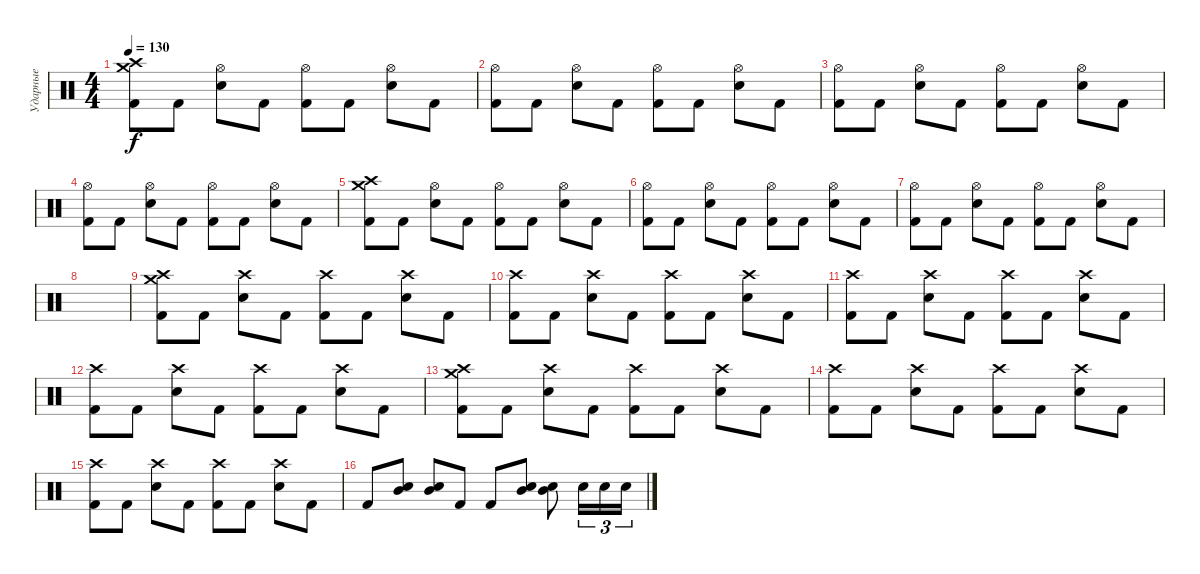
\track ("Ударные" "Ударные") {instrument percussion}
\staff {score}
\articulation defaults
\ts (4 4)
\tempo 130
\clef neutral
\ks c
("Kick (hit) 2" "Crash medium (hit)" "Crash high (hit)").8{dy f} "Kick (hit) 2".8 ("Electric Snare (hit)" "Hi-Hat (open)").8 "Kick (hit) 2".8 ("Kick (hit) 2" "Hi-Hat (open)").8 "Kick (hit) 2".8 ("Electric Snare (hit)" "Hi-Hat (open)").8 "Kick (hit) 2".8 |
("Kick (hit) 2" "Hi-Hat (open)").8 "Kick (hit) 2".8 ("Electric Snare (hit)" "Hi-Hat (open)").8 "Kick (hit) 2".8 ("Kick (hit) 2" "Hi-Hat (open)").8 "Kick (hit) 2".8 ("Electric Snare (hit)" "Hi-Hat (open)").8 "Kick (hit) 2".8 |
("Kick (hit) 2" "Hi-Hat (open)").8 "Kick (hit) 2".8 ("Electric Snare (hit)" "Hi-Hat (open)").8 "Kick (hit) 2".8 ("Kick (hit) 2" "Hi-Hat (open)").8 "Kick (hit) 2".8 ("Electric Snare (hit)" "Hi-Hat (open)").8 "Kick (hit) 2".8 |
("Kick (hit) 2" "Hi-Hat (open)").8 "Kick (hit) 2".8 ("Electric Snare (hit)" "Hi-Hat (open)").8 "Kick (hit) 2".8 ("Kick (hit) 2" "Hi-Hat (open)").8 "Kick (hit) 2".8 ("Electric Snare (hit)" "Hi-Hat (open)").8 "Kick (hit) 2".8 |
("Kick (hit) 2" "Crash medium (hit)" "Crash high (hit)").8 "Kick (hit) 2".8 ("Electric Snare (hit)" "Hi-Hat (open)").8 "Kick (hit) 2".8 ("Kick (hit) 2" "Hi-Hat (open)").8 "Kick (hit) 2".8 ("Electric Snare (hit)" "Hi-Hat (open)").8 "Kick (hit) 2".8 |
("Kick (hit) 2" "Hi-Hat (open)").8 "Kick (hit) 2".8 ("Electric Snare (hit)" "Hi-Hat (open)").8 "Kick (hit) 2".8 ("Kick (hit) 2" "Hi-Hat (open)").8 "Kick (hit) 2".8 ("Electric Snare (hit)" "Hi-Hat (open)").8 "Kick (hit) 2".8 |
("Kick (hit) 2" "Hi-Hat (open)").8 "Kick (hit) 2".8 ("Electric Snare (hit)" "Hi-Hat (open)").8 "Kick (hit) 2".8 ("Kick (hit) 2" "Hi-Hat (open)").8 "Kick (hit) 2".8 ("Electric Snare (hit)" "Hi-Hat (open)").8 "Kick (hit) 2".8 |
|
("Kick (hit) 2" "Crash medium (hit)" "Crash high (hit)").8 "Kick (hit) 2".8 ("Electric Snare (hit)" "Crash high (hit)").8 "Kick (hit) 2".8 ("Kick (hit) 2" "Crash high (hit)").8 "Kick (hit) 2".8 ("Electric Snare (hit)" "Crash high (hit)").8 "Kick (hit) 2".8 |
("Kick (hit) 2" "Crash high (hit)").8 "Kick (hit) 2".8 ("Electric Snare (hit)" "Crash high (hit)").8 "Kick (hit) 2".8 ("Kick (hit) 2" "Crash high (hit)").8 "Kick (hit) 2".8 ("Electric Snare (hit)" "Crash high (hit)").8 "Kick (hit) 2".8 |
("Kick (hit) 2" "Crash high (hit)").8 "Kick (hit) 2".8 ("Electric Snare (hit)" "Crash high (hit)").8 "Kick (hit) 2".8 ("Kick (hit) 2" "Crash high (hit)").8 "Kick (hit) 2".8 ("Electric Snare (hit)" "Crash high (hit)").8 "Kick (hit) 2".8 |
("Kick (hit) 2" "Crash high (hit)").8 "Kick (hit) 2".8 ("Electric Snare (hit)" "Crash high (hit)").8 "Kick (hit) 2".8 ("Kick (hit) 2" "Crash high (hit)").8 "Kick (hit) 2".8 ("Electric Snare (hit)" "Crash high (hit)").8 "Kick (hit) 2".8 |
("Kick (hit) 2" "Crash medium (hit)" "Crash high (hit)").8 "Kick (hit) 2".8 ("Electric Snare (hit)" "Crash high (hit)").8 "Kick (hit) 2".8 ("Kick (hit) 2" "Crash high (hit)").8 "Kick (hit) 2".8 ("Electric Snare (hit)" "Crash high (hit)").8 "Kick (hit) 2".8 |
("Kick (hit) 2" "Crash high (hit)").8 "Kick (hit) 2".8 ("Electric Snare (hit)" "Crash high (hit)").8 "Kick (hit) 2".8 ("Kick (hit) 2" "Crash high (hit)").8 "Kick (hit) 2".8 ("Electric Snare (hit)" "Crash high (hit)").8 "Kick (hit) 2".8 |
("Kick (hit) 2" "Crash high (hit)").8 "Kick (hit) 2".8 ("Electric Snare (hit)" "Crash high (hit)").8 "Kick (hit) 2".8 ("Kick (hit) 2" "Crash high (hit)").8 "Kick (hit) 2".8 ("Electric Snare (hit)" "Crash high (hit)").8 "Kick (hit) 2".8 |
"Kick (hit) 2".8 ("Electric Snare (hit)" "Mid Tom (hit)").8 ("Electric Snare (hit)" "Mid Tom (hit)").8 "Kick (hit) 2".8 "Kick (hit) 2".8 ("Electric Snare (hit)" "Mid Tom (hit)").8 ("Electric Snare (hit)" "Mid Tom (hit)").8 "Electric Snare (hit)".16{tu (3 2)} "Electric Snare (hit)".16{tu (3 2)} "Electric Snare (hit)".16{tu (3 2)}
